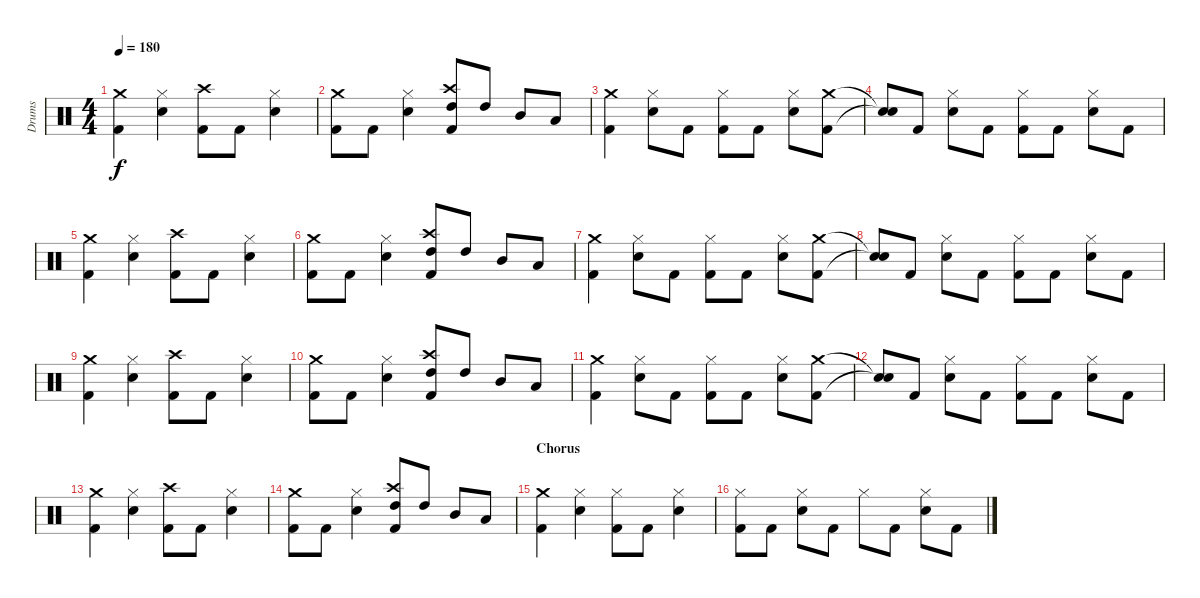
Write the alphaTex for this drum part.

\track ("Drums" "Drums") {instrument percussion}
\staff {score}
\articulation defaults
\ts (4 4)
\tempo 180
\clef neutral
\ks c
("Crash medium (hit)" "Kick (hit) 2").4{dy f} ("Hi-Hat (closed)" "Electric Snare (hit)").4 ("Crash high (hit)" "Kick (hit) 2").8 "Kick (hit) 2".8 ("Hi-Hat (closed)" "Electric Snare (hit)").4 |
("Crash medium (hit)" "Kick (hit) 2").8 "Kick (hit) 2".8 ("Hi-Hat (closed)" "Electric Snare (hit)").4 ("Crash high (hit)" "High Tom (hit)" "Kick (hit) 2").8 "High Tom (hit)".8 "Mid Tom (hit)".8 "Low Tom (hit)".8 |
("Crash medium (hit)" "Kick (hit) 2").4 ("Hi-Hat (closed)" "Electric Snare (hit)").8 "Kick (hit) 2".8 ("Hi-Hat (closed)" "Kick (hit) 2").8 "Kick (hit) 2".8 ("Hi-Hat (closed)" "Electric Snare (hit)").8 ("Crash medium (hit)" "Kick (hit) 2").8 |
("Snare (hit)"{t} "Snare (hit)"{t}).8 "Kick (hit) 2".8 ("Hi-Hat (closed)" "Electric Snare (hit)").8 "Kick (hit) 2".8 ("Hi-Hat (closed)" "Kick (hit) 2").8 "Kick (hit) 2".8 ("Hi-Hat (closed)" "Electric Snare (hit)").8 "Kick (hit) 2".8 |
("Crash medium (hit)" "Kick (hit) 2").4 ("Hi-Hat (closed)" "Electric Snare (hit)").4 ("Crash high (hit)" "Kick (hit) 2").8 "Kick (hit) 2".8 ("Hi-Hat (closed)" "Electric Snare (hit)").4 |
("Crash medium (hit)" "Kick (hit) 2").8 "Kick (hit) 2".8 ("Hi-Hat (closed)" "Electric Snare (hit)").4 ("Crash high (hit)" "High Tom (hit)" "Kick (hit) 2").8 "High Tom (hit)".8 "Mid Tom (hit)".8 "Low Tom (hit)".8 |
("Crash medium (hit)" "Kick (hit) 2").4 ("Hi-Hat (closed)" "Electric Snare (hit)").8 "Kick (hit) 2".8 ("Hi-Hat (closed)" "Kick (hit) 2").8 "Kick (hit) 2".8 ("Hi-Hat (closed)" "Electric Snare (hit)").8 ("Crash medium (hit)" "Kick (hit) 2").8 |
("Snare (hit)"{t} "Snare (hit)"{t}).8 "Kick (hit) 2".8 ("Hi-Hat (closed)" "Electric Snare (hit)").8 "Kick (hit) 2".8 ("Hi-Hat (closed)" "Kick (hit) 2").8 "Kick (hit) 2".8 ("Hi-Hat (closed)" "Electric Snare (hit)").8 "Kick (hit) 2".8 |
("Crash medium (hit)" "Kick (hit) 2").4 ("Hi-Hat (closed)" "Electric Snare (hit)").4 ("Crash high (hit)" "Kick (hit) 2").8 "Kick (hit) 2".8 ("Hi-Hat (closed)" "Electric Snare (hit)").4 |
("Crash medium (hit)" "Kick (hit) 2").8 "Kick (hit) 2".8 ("Hi-Hat (closed)" "Electric Snare (hit)").4 ("Crash high (hit)" "High Tom (hit)" "Kick (hit) 2").8 "High Tom (hit)".8 "Mid Tom (hit)".8 "Low Tom (hit)".8 |
("Crash medium (hit)" "Kick (hit) 2").4 ("Hi-Hat (closed)" "Electric Snare (hit)").8 "Kick (hit) 2".8 ("Hi-Hat (closed)" "Kick (hit) 2").8 "Kick (hit) 2".8 ("Hi-Hat (closed)" "Electric Snare (hit)").8 ("Crash medium (hit)" "Kick (hit) 2").8 |
("Snare (hit)"{t} "Snare (hit)"{t}).8 "Kick (hit) 2".8 ("Hi-Hat (closed)" "Electric Snare (hit)").8 "Kick (hit) 2".8 ("Hi-Hat (closed)" "Kick (hit) 2").8 "Kick (hit) 2".8 ("Hi-Hat (closed)" "Electric Snare (hit)").8 "Kick (hit) 2".8 |
("Crash medium (hit)" "Kick (hit) 2").4 ("Hi-Hat (closed)" "Electric Snare (hit)").4 ("Crash high (hit)" "Kick (hit) 2").8 "Kick (hit) 2".8 ("Hi-Hat (closed)" "Electric Snare (hit)").4 |
("Crash medium (hit)" "Kick (hit) 2").8 "Kick (hit) 2".8 ("Hi-Hat (closed)" "Electric Snare (hit)").4 ("Crash high (hit)" "High Tom (hit)" "Kick (hit) 2").8 "High Tom (hit)".8 "Mid Tom (hit)".8 "Low Tom (hit)".8 |
\section ("" "Chorus")
("Crash medium (hit)" "Kick (hit) 2").4 ("Hi-Hat (closed)" "Electric Snare (hit)").4 ("Hi-Hat (closed)" "Kick (hit) 2").8 "Kick (hit) 2".8 ("Hi-Hat (closed)" "Electric Snare (hit)").4 |
("Hi-Hat (closed)" "Kick (hit) 2").8 "Kick (hit) 2".8 ("Hi-Hat (closed)" "Electric Snare (hit)").8 "Kick (hit) 2".8 "Hi-Hat (closed)".8 "Kick (hit) 2".8 ("Hi-Hat (closed)" "Electric Snare (hit)").8 "Kick (hit) 2".8
